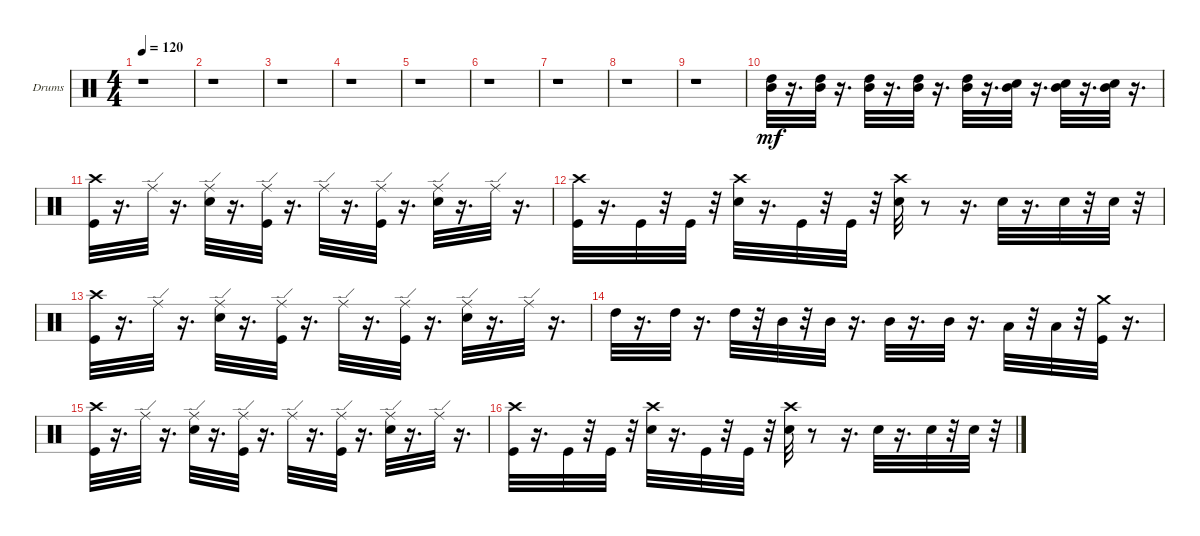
\bracketExtendMode groupsimilarinstruments
\firstSystemTrackNameOrientation horizontal
\otherSystemsTrackNameOrientation horizontal
\track ("" "Drums") {instrument percussion}
\staff {score}
\articulation defaults
\ts (4 4)
\tempo 120
\clef neutral
\ks c
r.1{dy mf} |
r.1 |
r.1 |
r.1 |
r.1 |
r.1 |
r.1 |
r.1 |
r.1 |
("High Tom (hit)" "Mid Tom (hit)").32 r.16{d} ("High Tom (hit)" "Mid Tom (hit)").32 r.16{d} ("High Tom (hit)" "Mid Tom (hit)").32 r.16{d} ("High Tom (hit)" "Mid Tom (hit)").32 r.16{d} ("High Tom (hit)" "Mid Tom (hit)").32 r.16{d} ("Snare (hit) 2" "Mid Tom (hit)").32 r.16{d} ("Snare (hit) 2" "Mid Tom (hit)").32 r.16{d} ("Snare (hit) 2" "Mid Tom (hit)").32 r.16{d} |
("Crash high (hit)" "Kick (hit)").32 r.16{d} "Ride (edge)".32 r.16{d} ("Ride (edge)" "Snare (hit) 2").32 r.16{d} ("Kick (hit)" "Ride (edge)").32 r.16{d} "Ride (edge)".32 r.16{d} ("Kick (hit)" "Ride (edge)").32 r.16{d} ("Snare (hit) 2" "Ride (edge)").32 r.16{d} "Ride (edge)".32 r.16{d} |
("Crash high (hit)" "Kick (hit)").32 r.16{d} "Kick (hit)".32 r.32 "Kick (hit)".32 r.32 ("Crash high (hit)" "Snare (hit) 2").32 r.16{d} "Kick (hit)".32 r.32 "Kick (hit)".32 r.32 ("Crash high (hit)" "Snare (hit) 2").32 r.8 r.16{d} "Snare (hit) 2".32 r.16{d} "Snare (hit) 2".32 r.32 "Snare (hit) 2".32 r.32 |
("Crash high (hit)" "Kick (hit)").32 r.16{d} "Ride (edge)".32 r.16{d} ("Ride (edge)" "Snare (hit) 2").32 r.16{d} ("Kick (hit)" "Ride (edge)").32 r.16{d} "Ride (edge)".32 r.16{d} ("Kick (hit)" "Ride (edge)").32 r.16{d} ("Snare (hit) 2" "Ride (edge)").32 r.16{d} "Ride (edge)".32 r.16{d} |
"High Tom (hit)".32 r.16{d} "High Tom (hit)".32 r.16{d} "High Tom (hit)".32 r.32 "Mid Tom (hit)".32 r.32 "Mid Tom (hit)".32 r.16{d} "Mid Tom (hit)".32 r.16{d} "Mid Tom (hit)".32 r.16{d} "Low Tom (hit)".32 r.32 "Low Tom (hit)".32 r.32 ("Kick (hit)" "Crash medium (hit)").32 r.16{d} |
("Crash high (hit)" "Kick (hit)").32 r.16{d} "Ride (edge)".32 r.16{d} ("Ride (edge)" "Snare (hit) 2").32 r.16{d} ("Kick (hit)" "Ride (edge)").32 r.16{d} "Ride (edge)".32 r.16{d} ("Kick (hit)" "Ride (edge)").32 r.16{d} ("Snare (hit) 2" "Ride (edge)").32 r.16{d} "Ride (edge)".32 r.16{d} |
("Crash high (hit)" "Kick (hit)").32 r.16{d} "Kick (hit)".32 r.32 "Kick (hit)".32 r.32 ("Crash high (hit)" "Snare (hit) 2").32 r.16{d} "Kick (hit)".32 r.32 "Kick (hit)".32 r.32 ("Crash high (hit)" "Snare (hit) 2").32 r.8 r.16{d} "Snare (hit) 2".32 r.16{d} "Snare (hit) 2".32 r.32 "Snare (hit) 2".32 r.32
